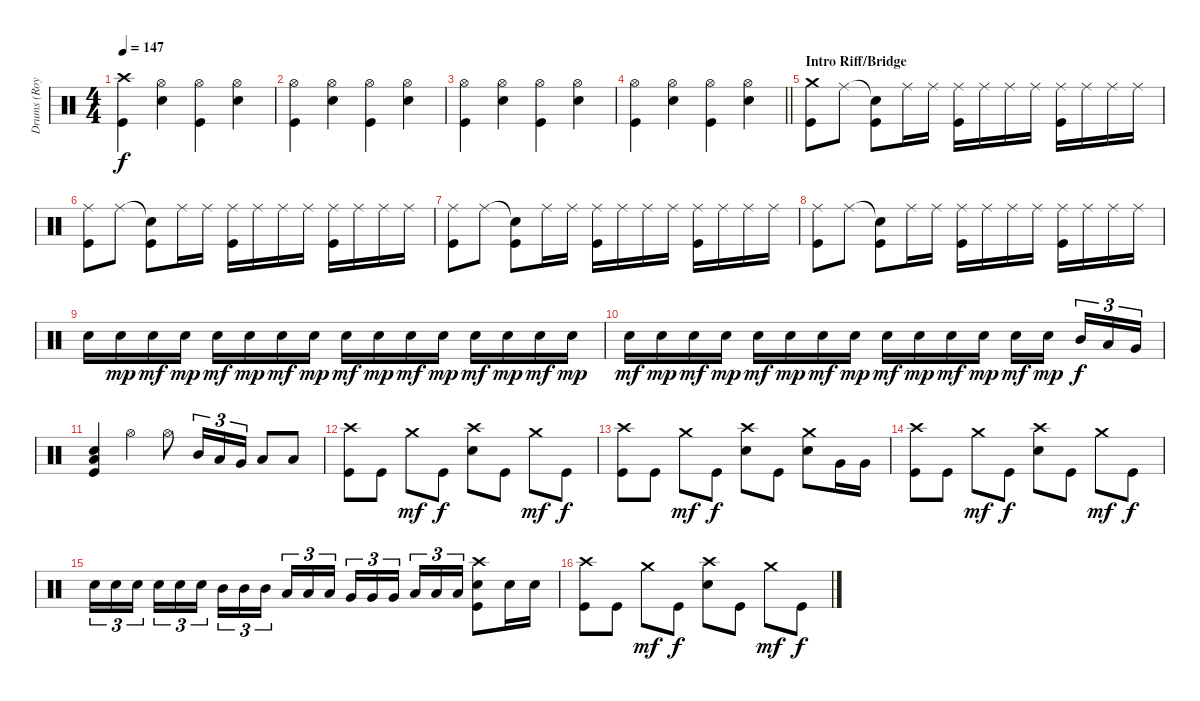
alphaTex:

\track ("Drums (Roy)" "Drums (Roy") {instrument percussion}
\staff {score}
\articulation defaults
\ts (4 4)
\tempo 147
\clef neutral
\ks c
("Crash high (hit)" "Kick (hit)").4{dy f} ("Hi-Hat (open)" "Snare (hit) 2").4 ("Hi-Hat (open)" "Kick (hit)").4 ("Hi-Hat (open)" "Snare (hit) 2").4 |
("Hi-Hat (open)" "Kick (hit)").4 ("Hi-Hat (open)" "Snare (hit) 2").4 ("Hi-Hat (open)" "Kick (hit)").4 ("Hi-Hat (open)" "Snare (hit) 2").4 |
("Hi-Hat (open)" "Kick (hit)").4 ("Hi-Hat (open)" "Snare (hit) 2").4 ("Hi-Hat (open)" "Kick (hit)").4 ("Hi-Hat (open)" "Snare (hit) 2").4 |
\barLineRight lightlight
("Hi-Hat (open)" "Kick (hit)").4 ("Hi-Hat (open)" "Snare (hit) 2").4 ("Hi-Hat (open)" "Kick (hit)").4 ("Hi-Hat (open)" "Snare (hit) 2").4 |
\section ("" "Intro Riff/Bridge")
("Crash medium (hit)" "Kick (hit)").8 "Ride (middle)".8 ("Snare (hit)"{t} "Kick (hit)").8 "Ride (middle)".16 "Ride (middle)".16 ("Ride (middle)" "Kick (hit)").16 "Ride (middle)".16 "Ride (middle)".16 "Ride (middle)".16 ("Ride (middle)" "Kick (hit)").16 "Ride (middle)".16 "Ride (middle)".16 "Ride (middle)".16 |
("Ride (middle)" "Kick (hit)").8 "Ride (middle)".8 ("Snare (hit)"{t} "Kick (hit)").8 "Ride (middle)".16 "Ride (middle)".16 ("Ride (middle)" "Kick (hit)").16 "Ride (middle)".16 "Ride (middle)".16 "Ride (middle)".16 ("Ride (middle)" "Kick (hit)").16 "Ride (middle)".16 "Ride (middle)".16 "Ride (middle)".16 |
("Ride (middle)" "Kick (hit)").8 "Ride (middle)".8 ("Snare (hit)"{t} "Kick (hit)").8 "Ride (middle)".16 "Ride (middle)".16 ("Ride (middle)" "Kick (hit)").16 "Ride (middle)".16 "Ride (middle)".16 "Ride (middle)".16 ("Ride (middle)" "Kick (hit)").16 "Ride (middle)".16 "Ride (middle)".16 "Ride (middle)".16 |
("Ride (middle)" "Kick (hit)").8 "Ride (middle)".8 ("Snare (hit)"{t} "Kick (hit)").8 "Ride (middle)".16 "Ride (middle)".16 ("Ride (middle)" "Kick (hit)").16 "Ride (middle)".16 "Ride (middle)".16 "Ride (middle)".16 ("Ride (middle)" "Kick (hit)").16 "Ride (middle)".16 "Ride (middle)".16 "Ride (middle)".16 |
"Snare (hit) 2".16 "Snare (hit) 2".16{dy mp} "Snare (hit) 2".16{dy mf} "Snare (hit) 2".16{dy mp} "Snare (hit) 2".16{dy mf} "Snare (hit) 2".16{dy mp} "Snare (hit) 2".16{dy mf} "Snare (hit) 2".16{dy mp} "Snare (hit) 2".16{dy mf} "Snare (hit) 2".16{dy mp} "Snare (hit) 2".16{dy mf} "Snare (hit) 2".16{dy mp} "Snare (hit) 2".16{dy mf} "Snare (hit) 2".16{dy mp} "Snare (hit) 2".16{dy mf} "Snare (hit) 2".16{dy mp} |
"Snare (hit) 2".16{dy mf} "Snare (hit) 2".16{dy mp} "Snare (hit) 2".16{dy mf} "Snare (hit) 2".16{dy mp} "Snare (hit) 2".16{dy mf} "Snare (hit) 2".16{dy mp} "Snare (hit) 2".16{dy mf} "Snare (hit) 2".16{dy mp} "Snare (hit) 2".16{dy mf} "Snare (hit) 2".16{dy mp} "Snare (hit) 2".16{dy mf} "Snare (hit) 2".16{dy mp} "Snare (hit) 2".16{dy mf} "Snare (hit) 2".16{dy mp beam splitsecondary} "Mid Tom (hit)".16{tu (3 2) dy f} "Low Tom (hit)".16{tu (3 2)} "Very Low Tom (hit)".16{tu (3 2)} |
("Low Floor Tom (hit)" "Snare (hit) 2" "Kick (hit)").4 "Hi-Hat (open)".4 "Hi-Hat (open)".8 "Mid Tom (hit)".16{tu (3 2)} "Low Tom (hit)".16{tu (3 2)} "Very Low Tom (hit)".16{tu (3 2)} "Low Floor Tom (hit)".8 "Low Floor Tom (hit)".8 |
("Crash high (hit)" "Kick (hit)").8 "Kick (hit)".8 "Crash medium (hit)".8{dy mf} "Kick (hit)".8{dy f} ("Crash high (hit)" "Snare (hit) 2").8 "Kick (hit)".8 "Crash medium (hit)".8{dy mf} "Kick (hit)".8{dy f} |
("Crash high (hit)" "Kick (hit)").8 "Kick (hit)".8 "Crash medium (hit)".8{dy mf} "Kick (hit)".8{dy f} ("Crash high (hit)" "Snare (hit) 2").8 "Kick (hit)".8 ("Crash medium (hit)" "Snare (hit) 2").8 "Very Low Tom (hit)".16 "Very Low Tom (hit)".16 |
("Crash high (hit)" "Kick (hit)").8 "Kick (hit)".8 "Crash medium (hit)".8{dy mf} "Kick (hit)".8{dy f} ("Crash high (hit)" "Snare (hit) 2").8 "Kick (hit)".8 "Crash medium (hit)".8{dy mf} "Kick (hit)".8{dy f} |
"Snare (hit) 2".16{tu (3 2)} "Snare (hit) 2".16{tu (3 2)} "Snare (hit) 2".16{tu (3 2) beam splitsecondary} "Snare (hit) 2".16{tu (3 2)} "Snare (hit) 2".16{tu (3 2)} "Snare (hit) 2".16{tu (3 2)} "Mid Tom (hit)".16{tu (3 2)} "Mid Tom (hit)".16{tu (3 2)} "Mid Tom (hit)".16{tu (3 2) beam splitsecondary} "Low Tom (hit)".16{tu (3 2)} "Low Tom (hit)".16{tu (3 2)} "Low Tom (hit)".16{tu (3 2)} "Very Low Tom (hit)".16{tu (3 2)} "Very Low Tom (hit)".16{tu (3 2)} "Very Low Tom (hit)".16{tu (3 2) beam splitsecondary} "Low Floor Tom (hit)".16{tu (3 2)} "Low Floor Tom (hit)".16{tu (3 2)} "Low Floor Tom (hit)".16{tu (3 2)} ("Crash high (hit)" "Snare (hit) 2" "Kick (hit)").8 "Snare (hit) 2".16 "Snare (hit) 2".16 |
("Crash high (hit)" "Kick (hit)").8 "Kick (hit)".8 "Crash medium (hit)".8{dy mf} "Kick (hit)".8{dy f} ("Crash high (hit)" "Snare (hit) 2").8 "Kick (hit)".8 "Crash medium (hit)".8{dy mf} "Kick (hit)".8{dy f}
